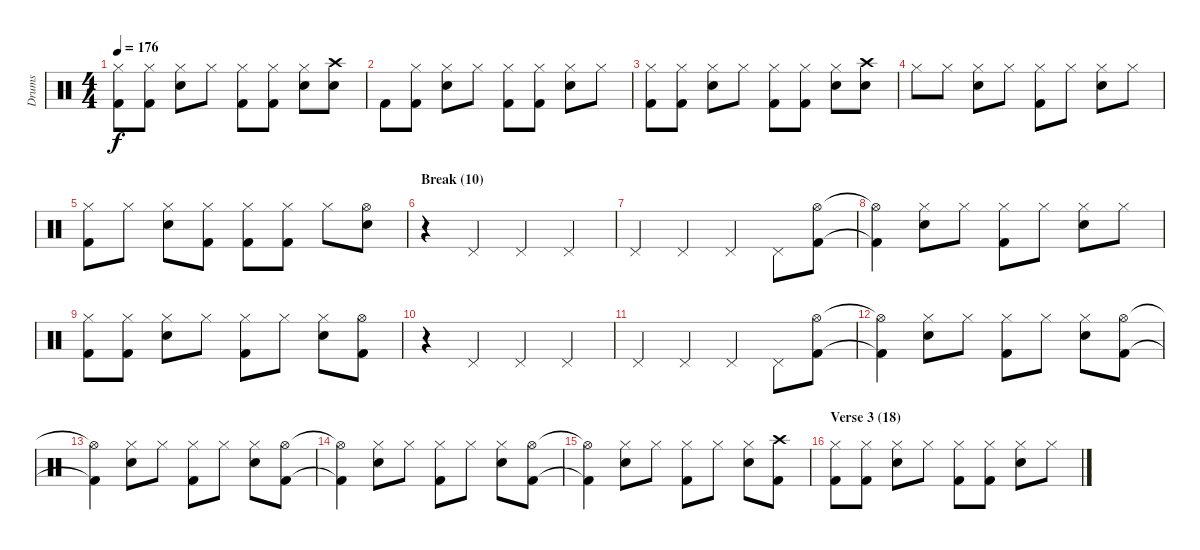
\track ("Drums" "Drums") {instrument percussion}
\staff {score}
\articulation defaults
\ts (4 4)
\tempo 176
\clef neutral
\ks c
("Hi-Hat (closed)" "Kick (hit) 2").8{dy f} ("Hi-Hat (closed)" "Kick (hit) 2").8 ("Hi-Hat (closed)" "Snare (hit) 2").8 "Hi-Hat (closed)".8 ("Hi-Hat (closed)" "Kick (hit) 2").8 ("Hi-Hat (closed)" "Kick (hit) 2").8 ("Hi-Hat (closed)" "Snare (hit) 2").8 ("Crash high (hit)" "Snare (hit) 2").8 |
"Kick (hit) 2".8 ("Hi-Hat (closed)" "Kick (hit) 2").8 ("Hi-Hat (closed)" "Snare (hit) 2").8 "Hi-Hat (closed)".8 ("Hi-Hat (closed)" "Kick (hit) 2").8 ("Hi-Hat (closed)" "Kick (hit) 2").8 ("Hi-Hat (closed)" "Snare (hit) 2").8 "Hi-Hat (closed)".8 |
("Hi-Hat (closed)" "Kick (hit) 2").8 ("Hi-Hat (closed)" "Kick (hit) 2").8 ("Hi-Hat (closed)" "Snare (hit) 2").8 "Hi-Hat (closed)".8 ("Hi-Hat (closed)" "Kick (hit) 2").8 ("Hi-Hat (closed)" "Kick (hit) 2").8 ("Hi-Hat (closed)" "Snare (hit) 2").8 ("Crash high (hit)" "Snare (hit) 2").8 |
"Hi-Hat (closed)".8 "Hi-Hat (closed)".8 ("Hi-Hat (closed)" "Snare (hit) 2").8 "Hi-Hat (closed)".8 ("Hi-Hat (closed)" "Kick (hit) 2").8 "Hi-Hat (closed)".8 ("Hi-Hat (closed)" "Snare (hit) 2").8 "Hi-Hat (closed)".8 |
("Hi-Hat (closed)" "Kick (hit) 2").8 "Hi-Hat (closed)".8 ("Hi-Hat (closed)" "Snare (hit) 2").8 ("Hi-Hat (closed)" "Kick (hit) 2").8 ("Hi-Hat (closed)" "Kick (hit) 2").8 ("Hi-Hat (closed)" "Kick (hit) 2").8 "Hi-Hat (closed)".8 ("Hi-Hat (open)" "Snare (hit) 2").8 |
\section ("" "Break (10)")
r.4 "Pedal Hi-Hat (hit)".4 "Pedal Hi-Hat (hit)".4 "Pedal Hi-Hat (hit)".4 |
"Pedal Hi-Hat (hit)".4 "Pedal Hi-Hat (hit)".4 "Pedal Hi-Hat (hit)".4 "Pedal Hi-Hat (hit)".8 ("Hi-Hat (open)" "Kick (hit) 2").8 |
("Hi-Hat (open)"{t} "Kick (hit) 2"{t}).4 ("Hi-Hat (closed)" "Snare (hit) 2").8 "Hi-Hat (closed)".8 ("Hi-Hat (closed)" "Kick (hit) 2").8 "Hi-Hat (closed)".8 ("Hi-Hat (closed)" "Snare (hit) 2").8 "Hi-Hat (closed)".8 |
("Hi-Hat (closed)" "Kick (hit) 2").8 ("Hi-Hat (closed)" "Kick (hit) 2").8 ("Hi-Hat (closed)" "Snare (hit) 2").8 "Hi-Hat (closed)".8 ("Hi-Hat (closed)" "Kick (hit) 2").8 "Hi-Hat (closed)".8 ("Hi-Hat (closed)" "Snare (hit) 2").8 ("Hi-Hat (open)" "Kick (hit) 2").8 |
r.4 "Pedal Hi-Hat (hit)".4 "Pedal Hi-Hat (hit)".4 "Pedal Hi-Hat (hit)".4 |
"Pedal Hi-Hat (hit)".4 "Pedal Hi-Hat (hit)".4 "Pedal Hi-Hat (hit)".4 "Pedal Hi-Hat (hit)".8 ("Hi-Hat (open)" "Kick (hit) 2").8 |
("Hi-Hat (open)"{t} "Kick (hit) 2"{t}).4 ("Hi-Hat (closed)" "Snare (hit) 2").8 "Hi-Hat (closed)".8 ("Hi-Hat (closed)" "Kick (hit) 2").8 "Hi-Hat (closed)".8 ("Hi-Hat (closed)" "Snare (hit) 2").8 ("Hi-Hat (open)" "Kick (hit) 2").8 |
("Hi-Hat (open)"{t} "Kick (hit) 2"{t}).4 ("Hi-Hat (closed)" "Snare (hit) 2").8 "Hi-Hat (closed)".8 ("Hi-Hat (closed)" "Kick (hit) 2").8 "Hi-Hat (closed)".8 ("Hi-Hat (closed)" "Snare (hit) 2").8 ("Hi-Hat (open)" "Kick (hit) 2").8 |
("Hi-Hat (open)"{t} "Kick (hit) 2"{t}).4 ("Hi-Hat (closed)" "Snare (hit) 2").8 "Hi-Hat (closed)".8 ("Hi-Hat (closed)" "Kick (hit) 2").8 "Hi-Hat (closed)".8 ("Hi-Hat (closed)" "Snare (hit) 2").8 ("Hi-Hat (open)" "Kick (hit) 2").8 |
("Hi-Hat (open)"{t} "Kick (hit) 2"{t}).4 ("Hi-Hat (closed)" "Snare (hit) 2").8 "Hi-Hat (closed)".8 ("Hi-Hat (closed)" "Kick (hit) 2").8 "Hi-Hat (closed)".8 ("Hi-Hat (closed)" "Snare (hit) 2").8 ("Crash high (hit)" "Kick (hit) 2").8 |
\section ("" "Verse 3 (18)")
("Hi-Hat (closed)" "Kick (hit) 2").8 ("Hi-Hat (closed)" "Kick (hit) 2").8 ("Hi-Hat (closed)" "Snare (hit) 2").8 "Hi-Hat (closed)".8 ("Hi-Hat (closed)" "Kick (hit) 2").8 ("Hi-Hat (closed)" "Kick (hit) 2").8 ("Hi-Hat (closed)" "Snare (hit) 2").8 "Hi-Hat (closed)".8
